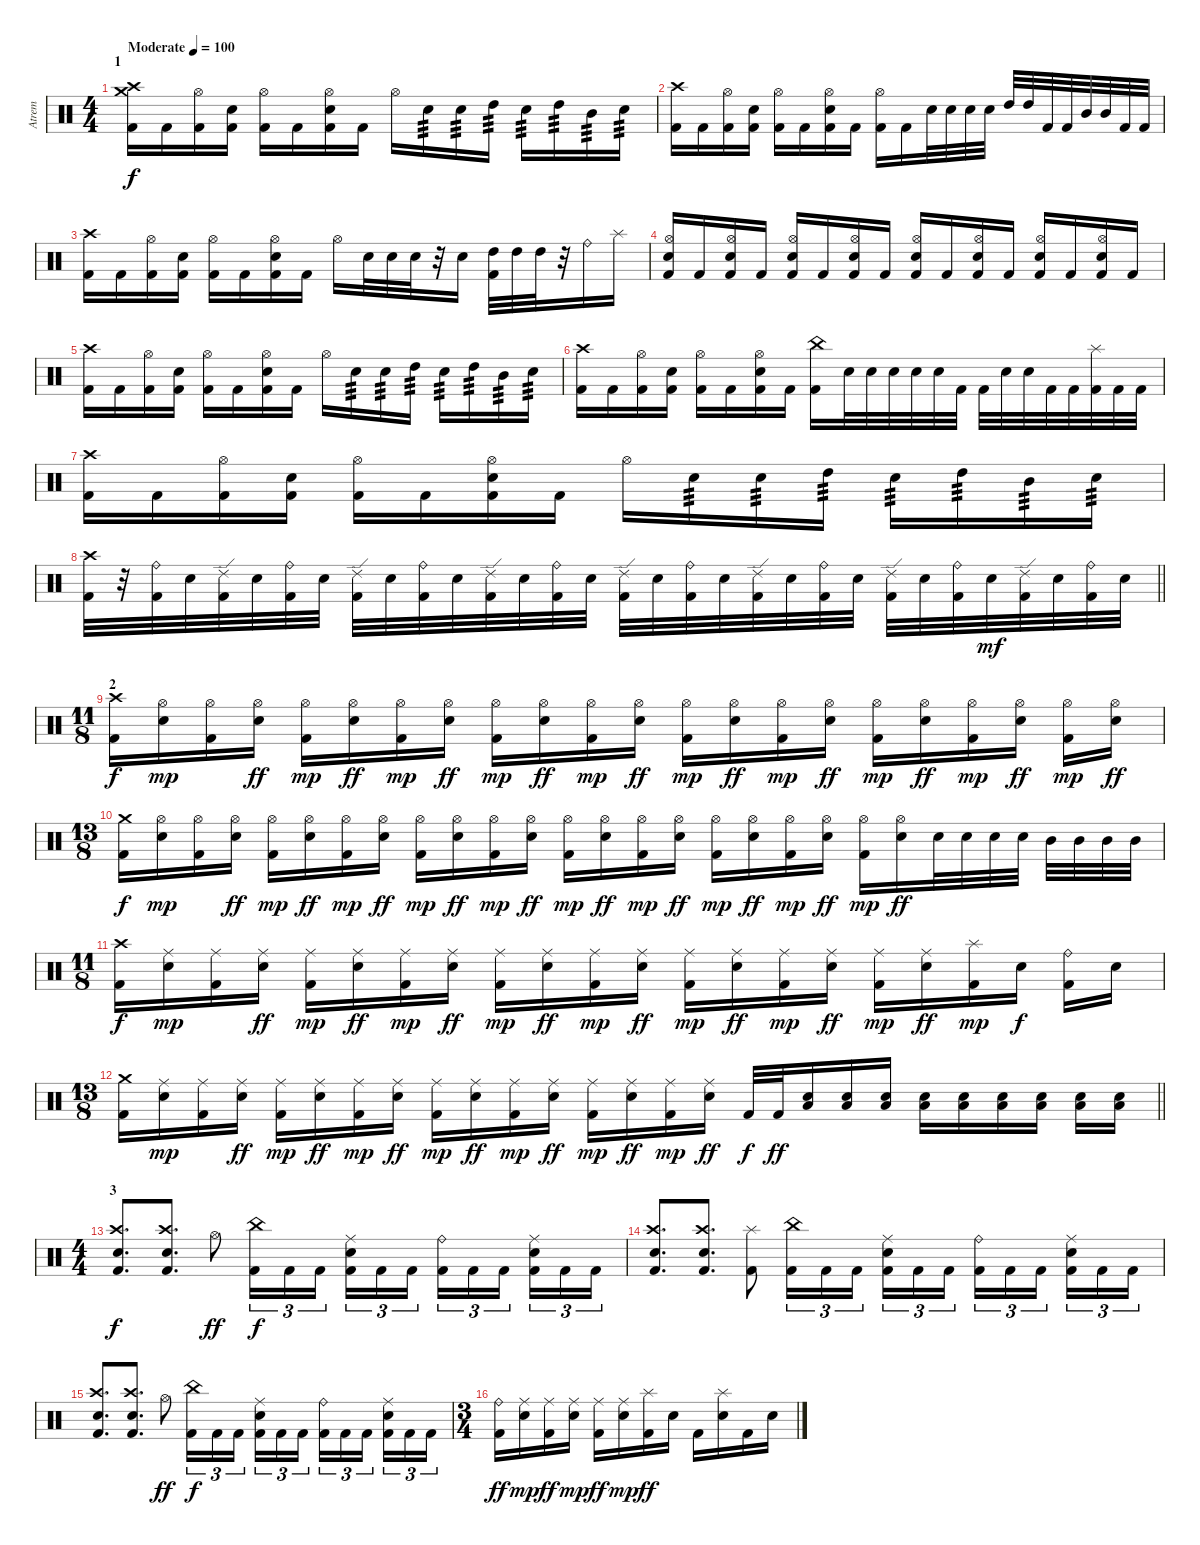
\track ("Atrem" "Atrem") {instrument percussion}
\staff {score}
\articulation defaults
\ts (4 4)
\section ("" "1")
\tempo (100 "Moderate")
\tempo 106
\tempo (100 "Moderate")
\clef neutral
\ks c
("Kick (hit) 2" "Crash high (hit)" "Crash medium (hit)").16{dy f} "Kick (hit) 2".16 ("Kick (hit) 2" "Hi-Hat (open)").16 ("Kick (hit) 2" "Electric Snare (hit)").16 ("Kick (hit) 2" "Hi-Hat (open)").16 "Kick (hit) 2".16 ("Kick (hit) 2" "Electric Snare (hit)" "Hi-Hat (open)").16 "Kick (hit) 2".16 "Hi-Hat (open)".16 "Electric Snare (hit)".16{tp 3} "Electric Snare (hit)".16{tp 3} "High Tom (hit)".16{tp 3} "Electric Snare (hit)".16{tp 3} "High Tom (hit)".16{tp 3} "Mid Tom (hit)".16{tp 3} "Electric Snare (hit)".16{tp 3} |
("Kick (hit) 2" "Crash high (hit)").16 "Kick (hit) 2".16 ("Kick (hit) 2" "Hi-Hat (open)").16 ("Kick (hit) 2" "Electric Snare (hit)").16 ("Kick (hit) 2" "Hi-Hat (open)").16 "Kick (hit) 2".16 ("Kick (hit) 2" "Electric Snare (hit)" "Hi-Hat (open)").16 "Kick (hit) 2".16 ("Kick (hit) 2" "Hi-Hat (open)").16 "Kick (hit) 2".16 "Electric Snare (hit)".32 "Electric Snare (hit)".32 "Electric Snare (hit)".32 "Electric Snare (hit)".32 "High Tom (hit)".32 "High Tom (hit)".32 "Kick (hit) 2".32 "Kick (hit) 2".32 "Mid Tom (hit)".32 "Mid Tom (hit)".32 "Kick (hit) 2".32 "Kick (hit) 2".32 |
("Kick (hit) 2" "Crash high (hit)").16 "Kick (hit) 2".16 ("Kick (hit) 2" "Hi-Hat (open)").16 ("Kick (hit) 2" "Electric Snare (hit)").16 ("Kick (hit) 2" "Hi-Hat (open)").16 "Kick (hit) 2".16 ("Kick (hit) 2" "Electric Snare (hit)" "Hi-Hat (open)").16 "Kick (hit) 2".16 "Hi-Hat (open)".16 "Electric Snare (hit)".32 "Electric Snare (hit)".32 "Electric Snare (hit)".32 r.32 "Electric Snare (hit)".16 ("High Tom (hit)" "Kick (hit) 2").32 "High Tom (hit)".32 "High Tom (hit)".32 r.32 "Ride (bell)".16 "Splash (hit)".16 |
("Hi-Hat (open)" "Kick (hit) 2" "Electric Snare (hit)").16 "Kick (hit) 2".16 ("Kick (hit) 2" "Electric Snare (hit)" "Hi-Hat (open)").16 "Kick (hit) 2".16 ("Kick (hit) 2" "Electric Snare (hit)" "Hi-Hat (open)").16 "Kick (hit) 2".16 ("Kick (hit) 2" "Electric Snare (hit)" "Hi-Hat (open)").16 "Kick (hit) 2".16 ("Hi-Hat (open)" "Kick (hit) 2" "Electric Snare (hit)").16 "Kick (hit) 2".16 ("Kick (hit) 2" "Electric Snare (hit)" "Hi-Hat (open)").16 "Kick (hit) 2".16 ("Kick (hit) 2" "Electric Snare (hit)" "Hi-Hat (open)").16 "Kick (hit) 2".16 ("Kick (hit) 2" "Electric Snare (hit)" "Hi-Hat (open)").16 "Kick (hit) 2".16 |
("Kick (hit) 2" "Crash high (hit)").16 "Kick (hit) 2".16 ("Kick (hit) 2" "Hi-Hat (open)").16 ("Kick (hit) 2" "Electric Snare (hit)").16 ("Kick (hit) 2" "Hi-Hat (open)").16 "Kick (hit) 2".16 ("Kick (hit) 2" "Electric Snare (hit)" "Hi-Hat (open)").16 "Kick (hit) 2".16 "Hi-Hat (open)".16 "Electric Snare (hit)".16{tp 3} "Electric Snare (hit)".16{tp 3} "High Tom (hit)".16{tp 3} "Electric Snare (hit)".16{tp 3} "High Tom (hit)".16{tp 3} "Mid Tom (hit)".16{tp 3} "Electric Snare (hit)".16{tp 3} |
("Kick (hit) 2" "Crash high (hit)").16 "Kick (hit) 2".16 ("Kick (hit) 2" "Hi-Hat (open)").16 ("Kick (hit) 2" "Electric Snare (hit)").16 ("Kick (hit) 2" "Hi-Hat (open)").16 "Kick (hit) 2".16 ("Kick (hit) 2" "Electric Snare (hit)" "Hi-Hat (open)").16 "Kick (hit) 2".16 ("Kick (hit) 2" "China (hit)").16 "Electric Snare (hit)".32 "Electric Snare (hit)".32 "Electric Snare (hit)".32 "Electric Snare (hit)".32 "Electric Snare (hit)".32 "Kick (hit) 2".32 "Kick (hit) 2".32 "Electric Snare (hit)".32 "Electric Snare (hit)".32 "Kick (hit) 2".32 "Kick (hit) 2".32 ("Kick (hit) 2" "Splash (hit)").32 "Kick (hit) 2".32 "Kick (hit) 2".32 |
("Kick (hit) 2" "Crash high (hit)").16 "Kick (hit) 2".16 ("Kick (hit) 2" "Hi-Hat (open)").16 ("Kick (hit) 2" "Electric Snare (hit)").16 ("Kick (hit) 2" "Hi-Hat (open)").16 "Kick (hit) 2".16 ("Kick (hit) 2" "Electric Snare (hit)" "Hi-Hat (open)").16 "Kick (hit) 2".16 "Hi-Hat (open)".16 "Electric Snare (hit)".16{tp 3} "Electric Snare (hit)".16{tp 3} "High Tom (hit)".16{tp 3} "Electric Snare (hit)".16{tp 3} "High Tom (hit)".16{tp 3} "Mid Tom (hit)".16{tp 3} "Electric Snare (hit)".16{tp 3} |
\barLineRight lightlight
("Kick (hit) 2" "Crash high (hit)").32 r.32 ("Kick (hit) 2" "Ride (bell)").32 "Electric Snare (hit)".32 ("Kick (hit) 2" "Ride (edge) 2").32 "Electric Snare (hit)".32 ("Kick (hit) 2" "Ride (bell)").32 "Electric Snare (hit)".32 ("Kick (hit) 2" "Ride (edge) 2").32 "Electric Snare (hit)".32 ("Kick (hit) 2" "Ride (bell)").32 "Electric Snare (hit)".32 ("Kick (hit) 2" "Ride (edge) 2").32 "Electric Snare (hit)".32 ("Kick (hit) 2" "Ride (bell)").32 "Electric Snare (hit)".32 ("Kick (hit) 2" "Ride (edge) 2").32 "Electric Snare (hit)".32 ("Kick (hit) 2" "Ride (bell)").32 "Electric Snare (hit)".32 ("Kick (hit) 2" "Ride (edge) 2").32 "Electric Snare (hit)".32 ("Kick (hit) 2" "Ride (bell)").32 "Electric Snare (hit)".32 ("Kick (hit) 2" "Ride (edge) 2").32 "Electric Snare (hit)".32 ("Kick (hit) 2" "Ride (bell)").32 "Electric Snare (hit)".32{dy mf} ("Kick (hit) 2" "Ride (edge) 2").32 "Electric Snare (hit)".32 ("Kick (hit) 2" "Ride (bell)").32 "Electric Snare (hit)".32 |
\ts (11 8)
\section ("" "2")
("Kick (hit) 2" "Crash high (hit)").16{dy f} ("Hi-Hat (open)" "Electric Snare (hit)").16{dy mp} ("Kick (hit) 2" "Hi-Hat (open)").16 ("Hi-Hat (open)" "Electric Snare (hit)").16{dy ff} ("Kick (hit) 2" "Hi-Hat (open)").16{dy mp} ("Hi-Hat (open)" "Electric Snare (hit)").16{dy ff} ("Kick (hit) 2" "Hi-Hat (open)").16{dy mp} ("Hi-Hat (open)" "Electric Snare (hit)").16{dy ff} ("Kick (hit) 2" "Hi-Hat (open)").16{dy mp} ("Hi-Hat (open)" "Electric Snare (hit)").16{dy ff} ("Kick (hit) 2" "Hi-Hat (open)").16{dy mp} ("Hi-Hat (open)" "Electric Snare (hit)").16{dy ff} ("Kick (hit) 2" "Hi-Hat (open)").16{dy mp} ("Hi-Hat (open)" "Electric Snare (hit)").16{dy ff} ("Kick (hit) 2" "Hi-Hat (open)").16{dy mp} ("Hi-Hat (open)" "Electric Snare (hit)").16{dy ff} ("Kick (hit) 2" "Hi-Hat (open)").16{dy mp} ("Hi-Hat (open)" "Electric Snare (hit)").16{dy ff} ("Kick (hit) 2" "Hi-Hat (open)").16{dy mp} ("Hi-Hat (open)" "Electric Snare (hit)").16{dy ff} ("Kick (hit) 2" "Hi-Hat (open)").16{dy mp} ("Hi-Hat (open)" "Electric Snare (hit)").16{dy ff} |
\ts (13 8)
("Kick (hit) 2" "Crash medium (hit)").16{dy f} ("Hi-Hat (open)" "Electric Snare (hit)").16{dy mp} ("Kick (hit) 2" "Hi-Hat (open)").16 ("Hi-Hat (open)" "Electric Snare (hit)").16{dy ff} ("Kick (hit) 2" "Hi-Hat (open)").16{dy mp} ("Hi-Hat (open)" "Electric Snare (hit)").16{dy ff} ("Kick (hit) 2" "Hi-Hat (open)").16{dy mp} ("Hi-Hat (open)" "Electric Snare (hit)").16{dy ff} ("Kick (hit) 2" "Hi-Hat (open)").16{dy mp} ("Hi-Hat (open)" "Electric Snare (hit)").16{dy ff} ("Kick (hit) 2" "Hi-Hat (open)").16{dy mp} ("Hi-Hat (open)" "Electric Snare (hit)").16{dy ff} ("Kick (hit) 2" "Hi-Hat (open)").16{dy mp} ("Hi-Hat (open)" "Electric Snare (hit)").16{dy ff} ("Kick (hit) 2" "Hi-Hat (open)").16{dy mp} ("Hi-Hat (open)" "Electric Snare (hit)").16{dy ff} ("Kick (hit) 2" "Hi-Hat (open)").16{dy mp} ("Hi-Hat (open)" "Electric Snare (hit)").16{dy ff} ("Kick (hit) 2" "Hi-Hat (open)").16{dy mp} ("Hi-Hat (open)" "Electric Snare (hit)").16{dy ff} ("Kick (hit) 2" "Hi-Hat (open)").16{dy mp} ("Hi-Hat (open)" "Electric Snare (hit)").16{dy ff} "Electric Snare (hit)".32 "Electric Snare (hit)".32 "Electric Snare (hit)".32 "Electric Snare (hit)".32 "Mid Tom (hit)".32 "Mid Tom (hit)".32 "Mid Tom (hit)".32 "Mid Tom (hit)".32 |
\ts (11 8)
("Kick (hit) 2" "Crash high (hit)").16{dy f} ("Ride (middle)" "Electric Snare (hit)").16{dy mp} ("Kick (hit) 2" "Ride (middle)").16 ("Ride (middle)" "Electric Snare (hit)").16{dy ff} ("Kick (hit) 2" "Ride (middle)").16{dy mp} ("Ride (middle)" "Electric Snare (hit)").16{dy ff} ("Kick (hit) 2" "Ride (middle)").16{dy mp} ("Ride (middle)" "Electric Snare (hit)").16{dy ff} ("Kick (hit) 2" "Ride (middle)").16{dy mp} ("Ride (middle)" "Electric Snare (hit)").16{dy ff} ("Kick (hit) 2" "Ride (middle)").16{dy mp} ("Ride (middle)" "Electric Snare (hit)").16{dy ff} ("Kick (hit) 2" "Ride (middle)").16{dy mp} ("Ride (middle)" "Electric Snare (hit)").16{dy ff} ("Kick (hit) 2" "Ride (middle)").16{dy mp} ("Ride (middle)" "Electric Snare (hit)").16{dy ff} ("Kick (hit) 2" "Ride (middle)").16{dy mp} ("Ride (middle)" "Electric Snare (hit)").16{dy ff} ("Kick (hit) 2" "Splash (hit)").16{dy mp} "Electric Snare (hit)".16{dy f} ("Kick (hit) 2" "Ride (bell)").16 "Electric Snare (hit)".16 |
\ts (13 8)
\barLineRight lightlight
("Kick (hit) 2" "Crash medium (hit)").16 ("Ride (middle)" "Electric Snare (hit)").16{dy mp} ("Kick (hit) 2" "Ride (middle)").16 ("Ride (middle)" "Electric Snare (hit)").16{dy ff} ("Kick (hit) 2" "Ride (middle)").16{dy mp} ("Ride (middle)" "Electric Snare (hit)").16{dy ff} ("Kick (hit) 2" "Ride (middle)").16{dy mp} ("Ride (middle)" "Electric Snare (hit)").16{dy ff} ("Kick (hit) 2" "Ride (middle)").16{dy mp} ("Ride (middle)" "Electric Snare (hit)").16{dy ff} ("Kick (hit) 2" "Ride (middle)").16{dy mp} ("Ride (middle)" "Electric Snare (hit)").16{dy ff} ("Kick (hit) 2" "Ride (middle)").16{dy mp} ("Ride (middle)" "Electric Snare (hit)").16{dy ff} ("Kick (hit) 2" "Ride (middle)").16{dy mp} ("Ride (middle)" "Electric Snare (hit)").16{dy ff} "Kick (hit) 2".32{dy f} "Kick (hit) 2".32{dy ff} ("Electric Snare (hit)" "Low Floor Tom (hit)").16 ("Electric Snare (hit)" "Low Floor Tom (hit)").16 ("Electric Snare (hit)" "Low Floor Tom (hit)").16 ("Electric Snare (hit)" "Low Floor Tom (hit)").16 ("Electric Snare (hit)" "Low Floor Tom (hit)").16 ("Electric Snare (hit)" "Low Floor Tom (hit)").16 ("Electric Snare (hit)" "Low Floor Tom (hit)").16 ("Electric Snare (hit)" "Low Floor Tom (hit)").16 ("Electric Snare (hit)" "Low Floor Tom (hit)").16 |
\ts (4 4)
\section ("" "3")
("Kick (hit) 2" "Crash high (hit)" "Electric Snare (hit)").8{d dy f} ("Kick (hit) 2" "Crash high (hit)" "Electric Snare (hit)").8{d} "Hi-Hat (open)".8{dy ff} ("Kick (hit) 2" "China (hit)").16{tu (3 2) dy f} "Kick (hit) 2".16{tu (3 2)} "Kick (hit) 2".16{tu (3 2) beam splitsecondary} ("Kick (hit) 2" "Electric Snare (hit)" "Ride (middle)").16{tu (3 2)} "Kick (hit) 2".16{tu (3 2)} "Kick (hit) 2".16{tu (3 2)} ("Kick (hit) 2" "Ride (bell)").16{tu (3 2)} "Kick (hit) 2".16{tu (3 2)} "Kick (hit) 2".16{tu (3 2) beam splitsecondary} ("Kick (hit) 2" "Electric Snare (hit)" "Ride (middle)").16{tu (3 2)} "Kick (hit) 2".16{tu (3 2)} "Kick (hit) 2".16{tu (3 2)} |
("Kick (hit) 2" "Crash high (hit)" "Electric Snare (hit)").8{d} ("Kick (hit) 2" "Crash high (hit)" "Electric Snare (hit)").8{d} ("Kick (hit) 2" "Splash (hit)").8 ("Kick (hit) 2" "China (hit)").16{tu (3 2)} "Kick (hit) 2".16{tu (3 2)} "Kick (hit) 2".16{tu (3 2) beam splitsecondary} ("Kick (hit) 2" "Electric Snare (hit)" "Ride (middle)").16{tu (3 2)} "Kick (hit) 2".16{tu (3 2)} "Kick (hit) 2".16{tu (3 2)} ("Kick (hit) 2" "Ride (bell)").16{tu (3 2)} "Kick (hit) 2".16{tu (3 2)} "Kick (hit) 2".16{tu (3 2) beam splitsecondary} ("Kick (hit) 2" "Electric Snare (hit)" "Ride (middle)").16{tu (3 2)} "Kick (hit) 2".16{tu (3 2)} "Kick (hit) 2".16{tu (3 2)} |
("Kick (hit) 2" "Crash high (hit)" "Electric Snare (hit)").8{d} ("Kick (hit) 2" "Crash high (hit)" "Electric Snare (hit)").8{d} "Hi-Hat (open)".8{dy ff} ("Kick (hit) 2" "China (hit)").16{tu (3 2) dy f} "Kick (hit) 2".16{tu (3 2)} "Kick (hit) 2".16{tu (3 2) beam splitsecondary} ("Kick (hit) 2" "Electric Snare (hit)" "Ride (middle)").16{tu (3 2)} "Kick (hit) 2".16{tu (3 2)} "Kick (hit) 2".16{tu (3 2)} ("Kick (hit) 2" "Ride (bell)").16{tu (3 2)} "Kick (hit) 2".16{tu (3 2)} "Kick (hit) 2".16{tu (3 2) beam splitsecondary} ("Kick (hit) 2" "Electric Snare (hit)" "Ride (middle)").16{tu (3 2)} "Kick (hit) 2".16{tu (3 2)} "Kick (hit) 2".16{tu (3 2)} |
\ts (3 4)
("Kick (hit) 2" "Ride (bell)").16{dy ff} ("Electric Snare (hit)" "Ride (middle)").16{dy mp} ("Kick (hit) 2" "Ride (middle)").16{dy ff} ("Electric Snare (hit)" "Ride (middle)").16{dy mp} ("Kick (hit) 2" "Ride (middle)").16{dy ff} ("Electric Snare (hit)" "Ride (middle)").16{dy mp} ("Kick (hit) 2" "Splash (hit)").16{dy ff} "Electric Snare (hit)".16 "Kick (hit) 2".16 ("Electric Snare (hit)" "Splash (hit)").16 "Kick (hit) 2".16 "Electric Snare (hit)".16
